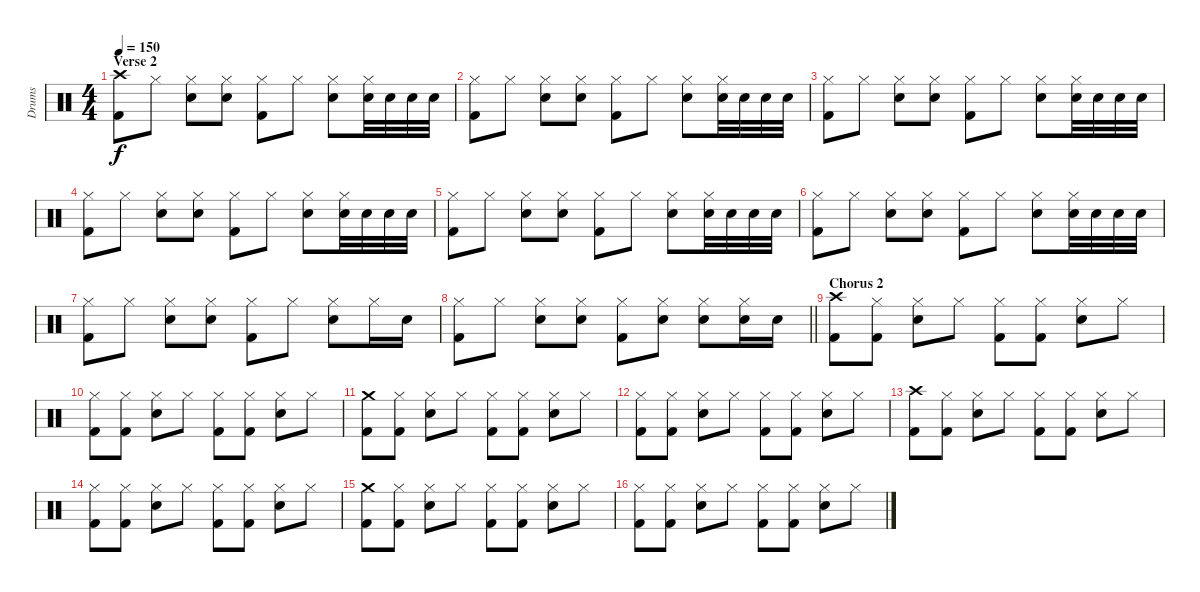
\track ("Drums" "Drums") {instrument percussion}
\staff {score}
\articulation defaults
\ts (4 4)
\section ("" "Verse 2")
\tempo 150
\clef neutral
\ks c
("Kick (hit) 2" "Crash high (hit)").8{dy f} "Hi-Hat (closed)".8 ("Hi-Hat (closed)" "Snare (hit) 2").8 ("Hi-Hat (closed)" "Snare (hit) 2").8 ("Kick (hit) 2" "Hi-Hat (closed)").8 "Hi-Hat (closed)".8 ("Hi-Hat (closed)" "Snare (hit) 2").8{beam Down} ("Hi-Hat (closed)" "Snare (hit) 2").32{beam Down} "Snare (hit) 2".32{beam Down} "Snare (hit) 2".32{beam Down} "Snare (hit) 2".32{beam Down} |
("Kick (hit) 2" "Hi-Hat (closed)").8 "Hi-Hat (closed)".8 ("Hi-Hat (closed)" "Snare (hit) 2").8 ("Hi-Hat (closed)" "Snare (hit) 2").8 ("Kick (hit) 2" "Hi-Hat (closed)").8 "Hi-Hat (closed)".8 ("Hi-Hat (closed)" "Snare (hit) 2").8 ("Hi-Hat (closed)" "Snare (hit) 2").32 "Snare (hit) 2".32 "Snare (hit) 2".32 "Snare (hit) 2".32 |
("Kick (hit) 2" "Hi-Hat (closed)").8 "Hi-Hat (closed)".8 ("Hi-Hat (closed)" "Snare (hit) 2").8 ("Hi-Hat (closed)" "Snare (hit) 2").8 ("Kick (hit) 2" "Hi-Hat (closed)").8 "Hi-Hat (closed)".8 ("Hi-Hat (closed)" "Snare (hit) 2").8 ("Hi-Hat (closed)" "Snare (hit) 2").32 "Snare (hit) 2".32 "Snare (hit) 2".32 "Snare (hit) 2".32 |
("Kick (hit) 2" "Hi-Hat (closed)").8 "Hi-Hat (closed)".8 ("Hi-Hat (closed)" "Snare (hit) 2").8 ("Hi-Hat (closed)" "Snare (hit) 2").8 ("Kick (hit) 2" "Hi-Hat (closed)").8 "Hi-Hat (closed)".8 ("Hi-Hat (closed)" "Snare (hit) 2").8 ("Hi-Hat (closed)" "Snare (hit) 2").32 "Snare (hit) 2".32 "Snare (hit) 2".32 "Snare (hit) 2".32 |
("Kick (hit) 2" "Hi-Hat (closed)").8 "Hi-Hat (closed)".8 ("Hi-Hat (closed)" "Snare (hit) 2").8 ("Hi-Hat (closed)" "Snare (hit) 2").8 ("Kick (hit) 2" "Hi-Hat (closed)").8 "Hi-Hat (closed)".8 ("Hi-Hat (closed)" "Snare (hit) 2").8 ("Hi-Hat (closed)" "Snare (hit) 2").32 "Snare (hit) 2".32 "Snare (hit) 2".32 "Snare (hit) 2".32 |
("Kick (hit) 2" "Hi-Hat (closed)").8 "Hi-Hat (closed)".8 ("Hi-Hat (closed)" "Snare (hit) 2").8 ("Hi-Hat (closed)" "Snare (hit) 2").8 ("Kick (hit) 2" "Hi-Hat (closed)").8 "Hi-Hat (closed)".8 ("Hi-Hat (closed)" "Snare (hit) 2").8 ("Hi-Hat (closed)" "Snare (hit) 2").32 "Snare (hit) 2".32 "Snare (hit) 2".32 "Snare (hit) 2".32 |
("Kick (hit) 2" "Hi-Hat (closed)").8 "Hi-Hat (closed)".8 ("Hi-Hat (closed)" "Snare (hit) 2").8 ("Hi-Hat (closed)" "Snare (hit) 2").8 ("Kick (hit) 2" "Hi-Hat (closed)").8 "Hi-Hat (closed)".8 ("Hi-Hat (closed)" "Snare (hit) 2").8 "Hi-Hat (closed)".16 "Snare (hit) 2".16 |
\barLineRight lightlight
("Kick (hit) 2" "Hi-Hat (closed)").8 "Hi-Hat (closed)".8 ("Hi-Hat (closed)" "Snare (hit) 2").8 ("Hi-Hat (closed)" "Snare (hit) 2").8 ("Kick (hit) 2" "Hi-Hat (closed)").8 ("Hi-Hat (closed)" "Snare (hit) 2").8 ("Hi-Hat (closed)" "Snare (hit) 2").8 ("Hi-Hat (closed)" "Snare (hit) 2").16 "Snare (hit) 2".16 |
\section ("" "Chorus 2")
("Kick (hit) 2" "Crash high (hit)").8 ("Kick (hit) 2" "Hi-Hat (closed)").8 ("Hi-Hat (closed)" "Snare (hit) 2").8 "Hi-Hat (closed)".8 ("Kick (hit) 2" "Hi-Hat (closed)").8 ("Kick (hit) 2" "Hi-Hat (closed)").8 ("Hi-Hat (closed)" "Snare (hit) 2").8 "Hi-Hat (closed)".8 |
("Kick (hit) 2" "Hi-Hat (closed)").8 ("Kick (hit) 2" "Hi-Hat (closed)").8 ("Hi-Hat (closed)" "Snare (hit) 2").8 "Hi-Hat (closed)".8 ("Kick (hit) 2" "Hi-Hat (closed)").8 ("Kick (hit) 2" "Hi-Hat (closed)").8 ("Hi-Hat (closed)" "Snare (hit) 2").8 "Hi-Hat (closed)".8 |
("Kick (hit) 2" "Crash medium (hit)").8 ("Kick (hit) 2" "Hi-Hat (closed)").8 ("Hi-Hat (closed)" "Snare (hit) 2").8 "Hi-Hat (closed)".8 ("Kick (hit) 2" "Hi-Hat (closed)").8 ("Kick (hit) 2" "Hi-Hat (closed)").8 ("Hi-Hat (closed)" "Snare (hit) 2").8 "Hi-Hat (closed)".8 |
("Kick (hit) 2" "Hi-Hat (closed)").8 ("Kick (hit) 2" "Hi-Hat (closed)").8 ("Hi-Hat (closed)" "Snare (hit) 2").8 "Hi-Hat (closed)".8 ("Kick (hit) 2" "Hi-Hat (closed)").8 ("Kick (hit) 2" "Hi-Hat (closed)").8 ("Hi-Hat (closed)" "Snare (hit) 2").8 "Hi-Hat (closed)".8 |
("Kick (hit) 2" "Crash high (hit)").8 ("Kick (hit) 2" "Hi-Hat (closed)").8 ("Hi-Hat (closed)" "Snare (hit) 2").8 "Hi-Hat (closed)".8 ("Kick (hit) 2" "Hi-Hat (closed)").8 ("Kick (hit) 2" "Hi-Hat (closed)").8 ("Hi-Hat (closed)" "Snare (hit) 2").8 "Hi-Hat (closed)".8 |
("Kick (hit) 2" "Hi-Hat (closed)").8 ("Kick (hit) 2" "Hi-Hat (closed)").8 ("Hi-Hat (closed)" "Snare (hit) 2").8 "Hi-Hat (closed)".8 ("Kick (hit) 2" "Hi-Hat (closed)").8 ("Kick (hit) 2" "Hi-Hat (closed)").8 ("Hi-Hat (closed)" "Snare (hit) 2").8 "Hi-Hat (closed)".8 |
("Kick (hit) 2" "Crash medium (hit)").8 ("Kick (hit) 2" "Hi-Hat (closed)").8 ("Hi-Hat (closed)" "Snare (hit) 2").8 "Hi-Hat (closed)".8 ("Kick (hit) 2" "Hi-Hat (closed)").8 ("Kick (hit) 2" "Hi-Hat (closed)").8 ("Hi-Hat (closed)" "Snare (hit) 2").8 "Hi-Hat (closed)".8 |
("Kick (hit) 2" "Hi-Hat (closed)").8 ("Kick (hit) 2" "Hi-Hat (closed)").8 ("Hi-Hat (closed)" "Snare (hit) 2").8 "Hi-Hat (closed)".8 ("Kick (hit) 2" "Hi-Hat (closed)").8 ("Kick (hit) 2" "Hi-Hat (closed)").8 ("Hi-Hat (closed)" "Snare (hit) 2").8 "Hi-Hat (closed)".8
